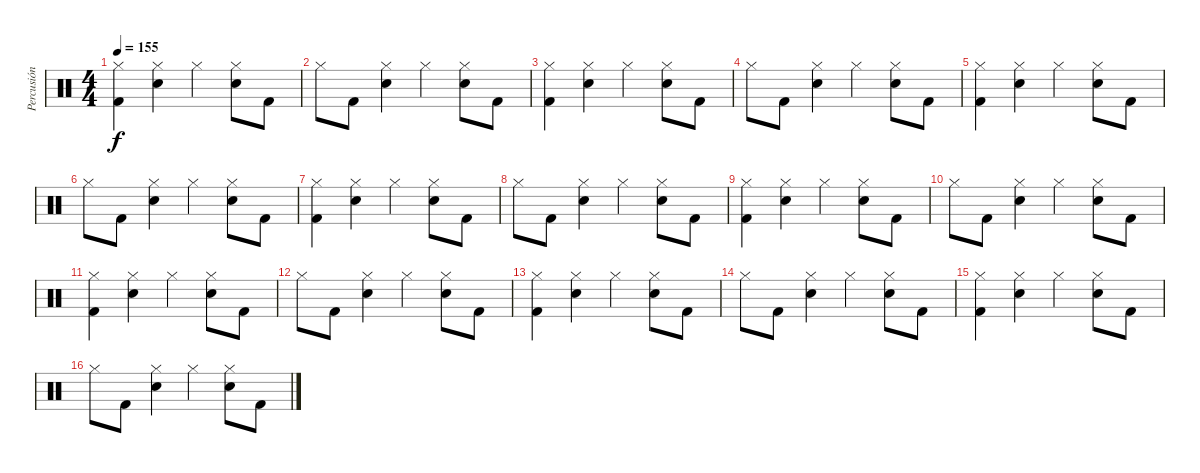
\track ("Percusión" "Percusión") {instrument percussion}
\staff {score}
\articulation defaults
\ts (4 4)
\tempo 155
\clef neutral
\ks c
("Hi-Hat (closed)" "Kick (hit) 2").4{dy f} ("Hi-Hat (closed)" "Electric Snare (hit)").4 "Hi-Hat (closed)".4 ("Hi-Hat (closed)" "Electric Snare (hit)").8 "Kick (hit) 2".8 |
"Hi-Hat (closed)".8 "Kick (hit) 2".8 ("Hi-Hat (closed)" "Electric Snare (hit)").4 "Hi-Hat (closed)".4 ("Hi-Hat (closed)" "Electric Snare (hit)").8 "Kick (hit) 2".8 |
("Hi-Hat (closed)" "Kick (hit) 2").4 ("Hi-Hat (closed)" "Electric Snare (hit)").4 "Hi-Hat (closed)".4 ("Hi-Hat (closed)" "Electric Snare (hit)").8 "Kick (hit) 2".8 |
"Hi-Hat (closed)".8 "Kick (hit) 2".8 ("Hi-Hat (closed)" "Electric Snare (hit)").4 "Hi-Hat (closed)".4 ("Hi-Hat (closed)" "Electric Snare (hit)").8 "Kick (hit) 2".8 |
("Hi-Hat (closed)" "Kick (hit) 2").4 ("Hi-Hat (closed)" "Electric Snare (hit)").4 "Hi-Hat (closed)".4 ("Hi-Hat (closed)" "Electric Snare (hit)").8 "Kick (hit) 2".8 |
"Hi-Hat (closed)".8 "Kick (hit) 2".8 ("Hi-Hat (closed)" "Electric Snare (hit)").4 "Hi-Hat (closed)".4 ("Hi-Hat (closed)" "Electric Snare (hit)").8 "Kick (hit) 2".8 |
("Hi-Hat (closed)" "Kick (hit) 2").4 ("Hi-Hat (closed)" "Electric Snare (hit)").4 "Hi-Hat (closed)".4 ("Hi-Hat (closed)" "Electric Snare (hit)").8 "Kick (hit) 2".8 |
"Hi-Hat (closed)".8 "Kick (hit) 2".8 ("Hi-Hat (closed)" "Electric Snare (hit)").4 "Hi-Hat (closed)".4 ("Hi-Hat (closed)" "Electric Snare (hit)").8 "Kick (hit) 2".8 |
("Hi-Hat (closed)" "Kick (hit) 2").4 ("Hi-Hat (closed)" "Electric Snare (hit)").4 "Hi-Hat (closed)".4 ("Hi-Hat (closed)" "Electric Snare (hit)").8 "Kick (hit) 2".8 |
"Hi-Hat (closed)".8 "Kick (hit) 2".8 ("Hi-Hat (closed)" "Electric Snare (hit)").4 "Hi-Hat (closed)".4 ("Hi-Hat (closed)" "Electric Snare (hit)").8 "Kick (hit) 2".8 |
("Hi-Hat (closed)" "Kick (hit) 2").4 ("Hi-Hat (closed)" "Electric Snare (hit)").4 "Hi-Hat (closed)".4 ("Hi-Hat (closed)" "Electric Snare (hit)").8 "Kick (hit) 2".8 |
"Hi-Hat (closed)".8 "Kick (hit) 2".8 ("Hi-Hat (closed)" "Electric Snare (hit)").4 "Hi-Hat (closed)".4 ("Hi-Hat (closed)" "Electric Snare (hit)").8 "Kick (hit) 2".8 |
("Hi-Hat (closed)" "Kick (hit) 2").4 ("Hi-Hat (closed)" "Electric Snare (hit)").4 "Hi-Hat (closed)".4 ("Hi-Hat (closed)" "Electric Snare (hit)").8 "Kick (hit) 2".8 |
"Hi-Hat (closed)".8 "Kick (hit) 2".8 ("Hi-Hat (closed)" "Electric Snare (hit)").4 "Hi-Hat (closed)".4 ("Hi-Hat (closed)" "Electric Snare (hit)").8 "Kick (hit) 2".8 |
("Hi-Hat (closed)" "Kick (hit) 2").4 ("Hi-Hat (closed)" "Electric Snare (hit)").4 "Hi-Hat (closed)".4 ("Hi-Hat (closed)" "Electric Snare (hit)").8 "Kick (hit) 2".8 |
"Hi-Hat (closed)".8 "Kick (hit) 2".8 ("Hi-Hat (closed)" "Electric Snare (hit)").4 "Hi-Hat (closed)".4 ("Hi-Hat (closed)" "Electric Snare (hit)").8 "Kick (hit) 2".8
